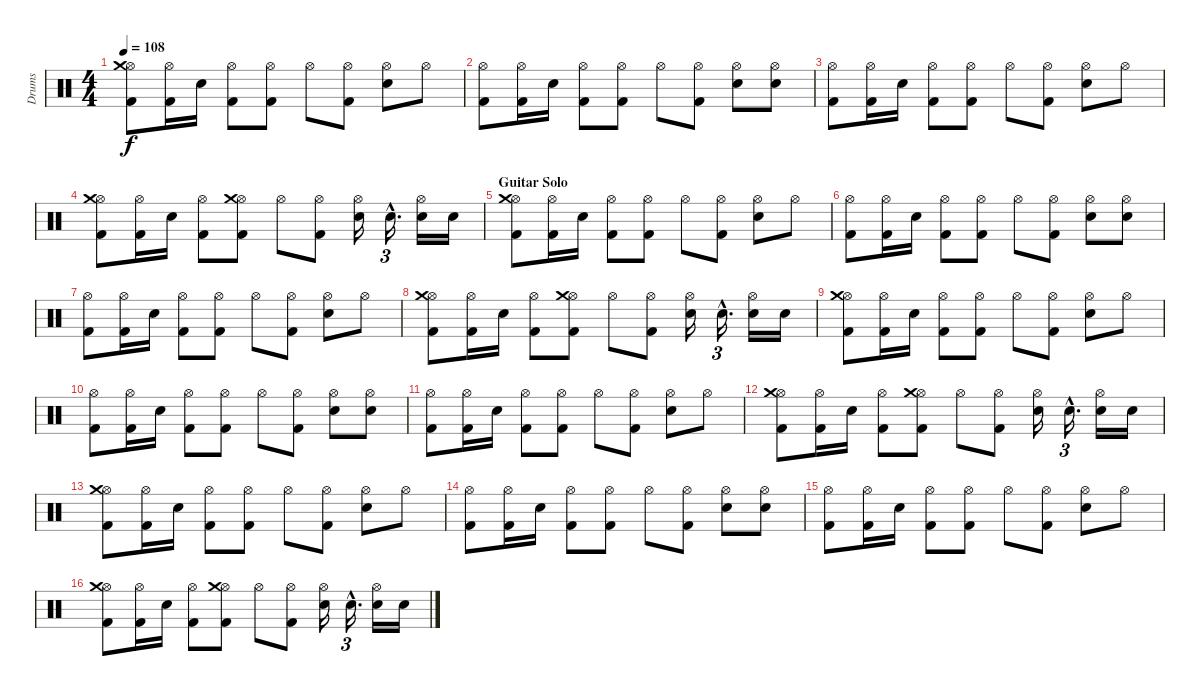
\track ("Drums" "Drums") {instrument percussion}
\staff {score}
\articulation defaults
\ts (4 4)
\tempo 108
\clef neutral
\ks c
("Hi-Hat (open)" "Kick (hit) 2" "Crash medium (hit)").8{dy f} ("Hi-Hat (open)" "Kick (hit) 2").16 "Electric Snare (hit)".16 ("Hi-Hat (open)" "Kick (hit) 2").8 ("Hi-Hat (open)" "Kick (hit) 2").8 "Hi-Hat (open)".8 ("Hi-Hat (open)" "Kick (hit) 2").8 ("Hi-Hat (open)" "Electric Snare (hit)").8 "Hi-Hat (open)".8 |
("Hi-Hat (open)" "Kick (hit) 2").8 ("Hi-Hat (open)" "Kick (hit) 2").16 "Electric Snare (hit)".16 ("Hi-Hat (open)" "Kick (hit) 2").8 ("Hi-Hat (open)" "Kick (hit) 2").8 "Hi-Hat (open)".8 ("Hi-Hat (open)" "Kick (hit) 2").8 ("Hi-Hat (open)" "Electric Snare (hit)").8 ("Hi-Hat (open)" "Electric Snare (hit)").8 |
("Hi-Hat (open)" "Kick (hit) 2").8 ("Hi-Hat (open)" "Kick (hit) 2").16 "Electric Snare (hit)".16 ("Hi-Hat (open)" "Kick (hit) 2").8 ("Hi-Hat (open)" "Kick (hit) 2").8 "Hi-Hat (open)".8 ("Hi-Hat (open)" "Kick (hit) 2").8 ("Hi-Hat (open)" "Electric Snare (hit)").8 "Hi-Hat (open)".8 |
("Hi-Hat (open)" "Kick (hit) 2" "Crash medium (hit)").8 ("Hi-Hat (open)" "Kick (hit) 2").16 "Electric Snare (hit)".16 ("Hi-Hat (open)" "Kick (hit) 2").8 ("Hi-Hat (open)" "Kick (hit) 2" "Crash medium (hit)").8 "Hi-Hat (open)".8 ("Hi-Hat (open)" "Kick (hit) 2").8 ("Hi-Hat (open)" "Electric Snare (hit)").16 "Electric Snare (hit)"{hac}.16{d tu (3 2)} ("Hi-Hat (open)" "Electric Snare (hit)").16 "Electric Snare (hit)".16 |
\section ("" "Guitar Solo")
("Hi-Hat (open)" "Kick (hit) 2" "Crash medium (hit)").8 ("Hi-Hat (open)" "Kick (hit) 2").16 "Electric Snare (hit)".16 ("Hi-Hat (open)" "Kick (hit) 2").8 ("Hi-Hat (open)" "Kick (hit) 2").8 "Hi-Hat (open)".8 ("Hi-Hat (open)" "Kick (hit) 2").8 ("Hi-Hat (open)" "Electric Snare (hit)").8 "Hi-Hat (open)".8 |
("Hi-Hat (open)" "Kick (hit) 2").8 ("Hi-Hat (open)" "Kick (hit) 2").16 "Electric Snare (hit)".16 ("Hi-Hat (open)" "Kick (hit) 2").8 ("Hi-Hat (open)" "Kick (hit) 2").8 "Hi-Hat (open)".8 ("Hi-Hat (open)" "Kick (hit) 2").8 ("Hi-Hat (open)" "Electric Snare (hit)").8 ("Hi-Hat (open)" "Electric Snare (hit)").8 |
("Hi-Hat (open)" "Kick (hit) 2").8 ("Hi-Hat (open)" "Kick (hit) 2").16 "Electric Snare (hit)".16 ("Hi-Hat (open)" "Kick (hit) 2").8 ("Hi-Hat (open)" "Kick (hit) 2").8 "Hi-Hat (open)".8 ("Hi-Hat (open)" "Kick (hit) 2").8 ("Hi-Hat (open)" "Electric Snare (hit)").8 "Hi-Hat (open)".8 |
("Hi-Hat (open)" "Kick (hit) 2" "Crash medium (hit)").8 ("Hi-Hat (open)" "Kick (hit) 2").16 "Electric Snare (hit)".16 ("Hi-Hat (open)" "Kick (hit) 2").8 ("Hi-Hat (open)" "Kick (hit) 2" "Crash medium (hit)").8 "Hi-Hat (open)".8 ("Hi-Hat (open)" "Kick (hit) 2").8 ("Hi-Hat (open)" "Electric Snare (hit)").16 "Electric Snare (hit)"{hac}.16{d tu (3 2)} ("Hi-Hat (open)" "Electric Snare (hit)").16 "Electric Snare (hit)".16 |
("Hi-Hat (open)" "Kick (hit) 2" "Crash medium (hit)").8 ("Hi-Hat (open)" "Kick (hit) 2").16 "Electric Snare (hit)".16 ("Hi-Hat (open)" "Kick (hit) 2").8 ("Hi-Hat (open)" "Kick (hit) 2").8 "Hi-Hat (open)".8 ("Hi-Hat (open)" "Kick (hit) 2").8 ("Hi-Hat (open)" "Electric Snare (hit)").8 "Hi-Hat (open)".8 |
("Hi-Hat (open)" "Kick (hit) 2").8 ("Hi-Hat (open)" "Kick (hit) 2").16 "Electric Snare (hit)".16 ("Hi-Hat (open)" "Kick (hit) 2").8 ("Hi-Hat (open)" "Kick (hit) 2").8 "Hi-Hat (open)".8 ("Hi-Hat (open)" "Kick (hit) 2").8 ("Hi-Hat (open)" "Electric Snare (hit)").8 ("Hi-Hat (open)" "Electric Snare (hit)").8 |
("Hi-Hat (open)" "Kick (hit) 2").8 ("Hi-Hat (open)" "Kick (hit) 2").16 "Electric Snare (hit)".16 ("Hi-Hat (open)" "Kick (hit) 2").8 ("Hi-Hat (open)" "Kick (hit) 2").8 "Hi-Hat (open)".8 ("Hi-Hat (open)" "Kick (hit) 2").8 ("Hi-Hat (open)" "Electric Snare (hit)").8 "Hi-Hat (open)".8 |
("Hi-Hat (open)" "Kick (hit) 2" "Crash medium (hit)").8 ("Hi-Hat (open)" "Kick (hit) 2").16 "Electric Snare (hit)".16 ("Hi-Hat (open)" "Kick (hit) 2").8 ("Hi-Hat (open)" "Kick (hit) 2" "Crash medium (hit)").8 "Hi-Hat (open)".8 ("Hi-Hat (open)" "Kick (hit) 2").8 ("Hi-Hat (open)" "Electric Snare (hit)").16 "Electric Snare (hit)"{hac}.16{d tu (3 2)} ("Hi-Hat (open)" "Electric Snare (hit)").16 "Electric Snare (hit)".16 |
("Hi-Hat (open)" "Kick (hit) 2" "Crash medium (hit)").8 ("Hi-Hat (open)" "Kick (hit) 2").16 "Electric Snare (hit)".16 ("Hi-Hat (open)" "Kick (hit) 2").8 ("Hi-Hat (open)" "Kick (hit) 2").8 "Hi-Hat (open)".8 ("Hi-Hat (open)" "Kick (hit) 2").8 ("Hi-Hat (open)" "Electric Snare (hit)").8 "Hi-Hat (open)".8 |
("Hi-Hat (open)" "Kick (hit) 2").8 ("Hi-Hat (open)" "Kick (hit) 2").16 "Electric Snare (hit)".16 ("Hi-Hat (open)" "Kick (hit) 2").8 ("Hi-Hat (open)" "Kick (hit) 2").8 "Hi-Hat (open)".8 ("Hi-Hat (open)" "Kick (hit) 2").8 ("Hi-Hat (open)" "Electric Snare (hit)").8 ("Hi-Hat (open)" "Electric Snare (hit)").8 |
("Hi-Hat (open)" "Kick (hit) 2").8 ("Hi-Hat (open)" "Kick (hit) 2").16 "Electric Snare (hit)".16 ("Hi-Hat (open)" "Kick (hit) 2").8 ("Hi-Hat (open)" "Kick (hit) 2").8 "Hi-Hat (open)".8 ("Hi-Hat (open)" "Kick (hit) 2").8 ("Hi-Hat (open)" "Electric Snare (hit)").8 "Hi-Hat (open)".8 |
("Hi-Hat (open)" "Kick (hit) 2" "Crash medium (hit)").8 ("Hi-Hat (open)" "Kick (hit) 2").16 "Electric Snare (hit)".16 ("Hi-Hat (open)" "Kick (hit) 2").8 ("Hi-Hat (open)" "Kick (hit) 2" "Crash medium (hit)").8 "Hi-Hat (open)".8 ("Hi-Hat (open)" "Kick (hit) 2").8 ("Hi-Hat (open)" "Electric Snare (hit)").16 "Electric Snare (hit)"{hac}.16{d tu (3 2)} ("Hi-Hat (open)" "Electric Snare (hit)").16 "Electric Snare (hit)".16
